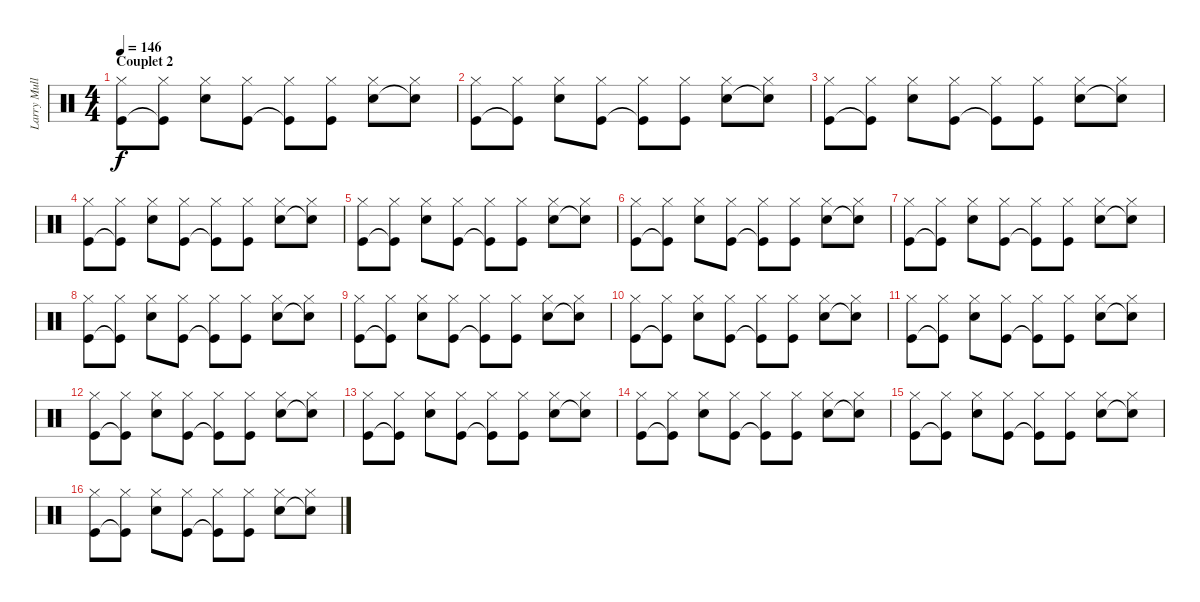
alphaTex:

\track ("Larry Mullen" "Larry Mull") {instrument percussion}
\staff {score}
\articulation defaults
\ts (4 4)
\section ("" "Couplet 2")
\tempo 146
\clef neutral
\ks c
("Hi-Hat (closed)" "Kick (hit)").8{dy f} ("Hi-Hat (closed)" "Kick (hit)"{t}).8 ("Hi-Hat (closed)" "Snare (hit) 2").8 ("Hi-Hat (closed)" "Kick (hit)").8 ("Hi-Hat (closed)" "Kick (hit)"{t}).8 ("Hi-Hat (closed)" "Kick (hit)").8 ("Hi-Hat (closed)" "Snare (hit) 2").8 ("Hi-Hat (closed)" "Snare (hit) 2"{t}).8 |
("Hi-Hat (closed)" "Kick (hit)").8 ("Hi-Hat (closed)" "Kick (hit)"{t}).8 ("Hi-Hat (closed)" "Snare (hit) 2").8 ("Hi-Hat (closed)" "Kick (hit)").8 ("Hi-Hat (closed)" "Kick (hit)"{t}).8 ("Hi-Hat (closed)" "Kick (hit)").8 ("Hi-Hat (closed)" "Snare (hit) 2").8 ("Hi-Hat (closed)" "Snare (hit) 2"{t}).8 |
("Hi-Hat (closed)" "Kick (hit)").8 ("Hi-Hat (closed)" "Kick (hit)"{t}).8 ("Hi-Hat (closed)" "Snare (hit) 2").8 ("Hi-Hat (closed)" "Kick (hit)").8 ("Hi-Hat (closed)" "Kick (hit)"{t}).8 ("Hi-Hat (closed)" "Kick (hit)").8 ("Hi-Hat (closed)" "Snare (hit) 2").8 ("Hi-Hat (closed)" "Snare (hit) 2"{t}).8 |
("Hi-Hat (closed)" "Kick (hit)").8 ("Hi-Hat (closed)" "Kick (hit)"{t}).8 ("Hi-Hat (closed)" "Snare (hit) 2").8 ("Hi-Hat (closed)" "Kick (hit)").8 ("Hi-Hat (closed)" "Kick (hit)"{t}).8 ("Hi-Hat (closed)" "Kick (hit)").8 ("Hi-Hat (closed)" "Snare (hit) 2").8 ("Hi-Hat (closed)" "Snare (hit) 2"{t}).8 |
("Hi-Hat (closed)" "Kick (hit)").8 ("Hi-Hat (closed)" "Kick (hit)"{t}).8 ("Hi-Hat (closed)" "Snare (hit) 2").8 ("Hi-Hat (closed)" "Kick (hit)").8 ("Hi-Hat (closed)" "Kick (hit)"{t}).8 ("Hi-Hat (closed)" "Kick (hit)").8 ("Hi-Hat (closed)" "Snare (hit) 2").8 ("Hi-Hat (closed)" "Snare (hit) 2"{t}).8 |
("Hi-Hat (closed)" "Kick (hit)").8 ("Hi-Hat (closed)" "Kick (hit)"{t}).8 ("Hi-Hat (closed)" "Snare (hit) 2").8 ("Hi-Hat (closed)" "Kick (hit)").8 ("Hi-Hat (closed)" "Kick (hit)"{t}).8 ("Hi-Hat (closed)" "Kick (hit)").8 ("Hi-Hat (closed)" "Snare (hit) 2").8 ("Hi-Hat (closed)" "Snare (hit) 2"{t}).8 |
("Hi-Hat (closed)" "Kick (hit)").8 ("Hi-Hat (closed)" "Kick (hit)"{t}).8 ("Hi-Hat (closed)" "Snare (hit) 2").8 ("Hi-Hat (closed)" "Kick (hit)").8 ("Hi-Hat (closed)" "Kick (hit)"{t}).8 ("Hi-Hat (closed)" "Kick (hit)").8 ("Hi-Hat (closed)" "Snare (hit) 2").8 ("Hi-Hat (closed)" "Snare (hit) 2"{t}).8 |
("Hi-Hat (closed)" "Kick (hit)").8 ("Hi-Hat (closed)" "Kick (hit)"{t}).8 ("Hi-Hat (closed)" "Snare (hit) 2").8 ("Hi-Hat (closed)" "Kick (hit)").8 ("Hi-Hat (closed)" "Kick (hit)"{t}).8 ("Hi-Hat (closed)" "Kick (hit)").8 ("Hi-Hat (closed)" "Snare (hit) 2").8 ("Hi-Hat (closed)" "Snare (hit) 2"{t}).8 |
("Hi-Hat (closed)" "Kick (hit)").8 ("Hi-Hat (closed)" "Kick (hit)"{t}).8 ("Hi-Hat (closed)" "Snare (hit) 2").8 ("Hi-Hat (closed)" "Kick (hit)").8 ("Hi-Hat (closed)" "Kick (hit)"{t}).8 ("Hi-Hat (closed)" "Kick (hit)").8 ("Hi-Hat (closed)" "Snare (hit) 2").8 ("Hi-Hat (closed)" "Snare (hit) 2"{t}).8 |
("Hi-Hat (closed)" "Kick (hit)").8 ("Hi-Hat (closed)" "Kick (hit)"{t}).8 ("Hi-Hat (closed)" "Snare (hit) 2").8 ("Hi-Hat (closed)" "Kick (hit)").8 ("Hi-Hat (closed)" "Kick (hit)"{t}).8 ("Hi-Hat (closed)" "Kick (hit)").8 ("Hi-Hat (closed)" "Snare (hit) 2").8 ("Hi-Hat (closed)" "Snare (hit) 2"{t}).8 |
("Hi-Hat (closed)" "Kick (hit)").8 ("Hi-Hat (closed)" "Kick (hit)"{t}).8 ("Hi-Hat (closed)" "Snare (hit) 2").8 ("Hi-Hat (closed)" "Kick (hit)").8 ("Hi-Hat (closed)" "Kick (hit)"{t}).8 ("Hi-Hat (closed)" "Kick (hit)").8 ("Hi-Hat (closed)" "Snare (hit) 2").8 ("Hi-Hat (closed)" "Snare (hit) 2"{t}).8 |
("Hi-Hat (closed)" "Kick (hit)").8 ("Hi-Hat (closed)" "Kick (hit)"{t}).8 ("Hi-Hat (closed)" "Snare (hit) 2").8 ("Hi-Hat (closed)" "Kick (hit)").8 ("Hi-Hat (closed)" "Kick (hit)"{t}).8 ("Hi-Hat (closed)" "Kick (hit)").8 ("Hi-Hat (closed)" "Snare (hit) 2").8 ("Hi-Hat (closed)" "Snare (hit) 2"{t}).8 |
("Hi-Hat (closed)" "Kick (hit)").8 ("Hi-Hat (closed)" "Kick (hit)"{t}).8 ("Hi-Hat (closed)" "Snare (hit) 2").8 ("Hi-Hat (closed)" "Kick (hit)").8 ("Hi-Hat (closed)" "Kick (hit)"{t}).8 ("Hi-Hat (closed)" "Kick (hit)").8 ("Hi-Hat (closed)" "Snare (hit) 2").8 ("Hi-Hat (closed)" "Snare (hit) 2"{t}).8 |
("Hi-Hat (closed)" "Kick (hit)").8 ("Hi-Hat (closed)" "Kick (hit)"{t}).8 ("Hi-Hat (closed)" "Snare (hit) 2").8 ("Hi-Hat (closed)" "Kick (hit)").8 ("Hi-Hat (closed)" "Kick (hit)"{t}).8 ("Hi-Hat (closed)" "Kick (hit)").8 ("Hi-Hat (closed)" "Snare (hit) 2").8 ("Hi-Hat (closed)" "Snare (hit) 2"{t}).8 |
("Hi-Hat (closed)" "Kick (hit)").8 ("Hi-Hat (closed)" "Kick (hit)"{t}).8 ("Hi-Hat (closed)" "Snare (hit) 2").8 ("Hi-Hat (closed)" "Kick (hit)").8 ("Hi-Hat (closed)" "Kick (hit)"{t}).8 ("Hi-Hat (closed)" "Kick (hit)").8 ("Hi-Hat (closed)" "Snare (hit) 2").8 ("Hi-Hat (closed)" "Snare (hit) 2"{t}).8 |
("Hi-Hat (closed)" "Kick (hit)").8 ("Hi-Hat (closed)" "Kick (hit)"{t}).8 ("Hi-Hat (closed)" "Snare (hit) 2").8 ("Hi-Hat (closed)" "Kick (hit)").8 ("Hi-Hat (closed)" "Kick (hit)"{t}).8 ("Hi-Hat (closed)" "Kick (hit)").8 ("Hi-Hat (closed)" "Snare (hit) 2").8 ("Hi-Hat (closed)" "Snare (hit) 2"{t}).8
